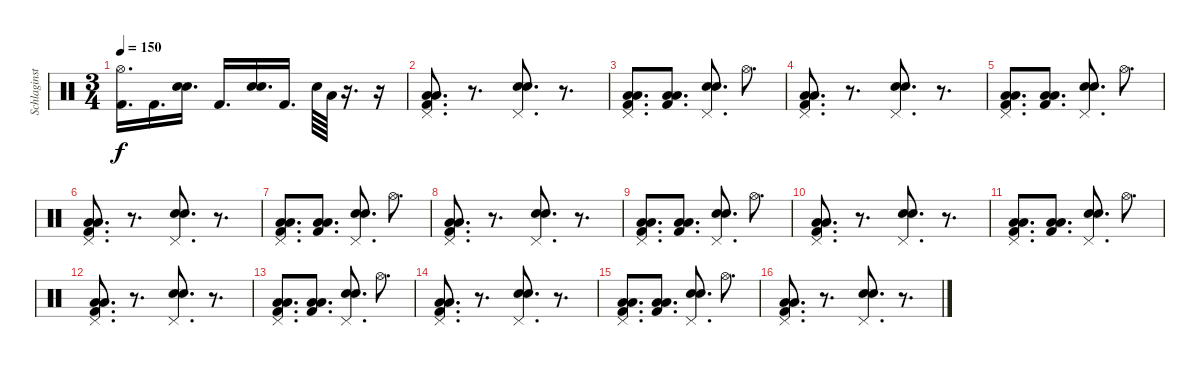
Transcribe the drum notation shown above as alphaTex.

\track ("Schlaginstrumente - Auswahl" "Schlaginst") {instrument percussion}
\staff {score}
\articulation defaults
\ts (3 4)
\tempo 150
\clef neutral
\ks c
("Hi-Hat (open)" "Kick (hit) 2").16{d dy f} "Kick (hit) 2".16{d} ("Snare (hit) 2" "Snare (hit) 2").16{d} "Kick (hit) 2".16{d} ("Snare (hit) 2" "Snare (hit) 2").16{d} "Kick (hit) 2".16{d} "Snare (hit) 2".64 "Low Tom (hit)".64 r.16{d} r.16 |
("Pedal Hi-Hat (hit)" "Low Tom (hit)" "Low Tom (hit)" "Kick (hit) 2").8{d} r.8{d} ("Pedal Hi-Hat (hit)" "Snare (hit) 2" "Snare (hit) 2").8{d} r.8{d} |
("Pedal Hi-Hat (hit)" "Low Tom (hit)" "Low Tom (hit)" "Kick (hit) 2").8{d} ("Low Tom (hit)" "Low Tom (hit)" "Kick (hit) 2").8{d} ("Pedal Hi-Hat (hit)" "Snare (hit) 2" "Snare (hit) 2").8{d} "Hi-Hat (open)".8{d} |
("Pedal Hi-Hat (hit)" "Low Tom (hit)" "Low Tom (hit)" "Kick (hit) 2").8{d} r.8{d} ("Pedal Hi-Hat (hit)" "Snare (hit) 2" "Snare (hit) 2").8{d} r.8{d} |
("Pedal Hi-Hat (hit)" "Low Tom (hit)" "Low Tom (hit)" "Kick (hit) 2").8{d} ("Low Tom (hit)" "Low Tom (hit)" "Kick (hit) 2").8{d} ("Pedal Hi-Hat (hit)" "Snare (hit) 2" "Snare (hit) 2").8{d} "Hi-Hat (open)".8{d} |
("Pedal Hi-Hat (hit)" "Low Tom (hit)" "Low Tom (hit)" "Kick (hit) 2").8{d} r.8{d} ("Pedal Hi-Hat (hit)" "Snare (hit) 2" "Snare (hit) 2").8{d} r.8{d} |
("Pedal Hi-Hat (hit)" "Low Tom (hit)" "Low Tom (hit)" "Kick (hit) 2").8{d} ("Low Tom (hit)" "Low Tom (hit)" "Kick (hit) 2").8{d} ("Pedal Hi-Hat (hit)" "Snare (hit) 2" "Snare (hit) 2").8{d} "Hi-Hat (open)".8{d} |
("Pedal Hi-Hat (hit)" "Low Tom (hit)" "Low Tom (hit)" "Kick (hit) 2").8{d} r.8{d} ("Pedal Hi-Hat (hit)" "Snare (hit) 2" "Snare (hit) 2").8{d} r.8{d} |
("Pedal Hi-Hat (hit)" "Low Tom (hit)" "Low Tom (hit)" "Kick (hit) 2").8{d} ("Low Tom (hit)" "Low Tom (hit)" "Kick (hit) 2").8{d} ("Pedal Hi-Hat (hit)" "Snare (hit) 2" "Snare (hit) 2").8{d} "Hi-Hat (open)".8{d} |
("Pedal Hi-Hat (hit)" "Low Tom (hit)" "Low Tom (hit)" "Kick (hit) 2").8{d} r.8{d} ("Pedal Hi-Hat (hit)" "Snare (hit) 2" "Snare (hit) 2").8{d} r.8{d} |
("Pedal Hi-Hat (hit)" "Low Tom (hit)" "Low Tom (hit)" "Kick (hit) 2").8{d} ("Low Tom (hit)" "Low Tom (hit)" "Kick (hit) 2").8{d} ("Pedal Hi-Hat (hit)" "Snare (hit) 2" "Snare (hit) 2").8{d} "Hi-Hat (open)".8{d} |
("Pedal Hi-Hat (hit)" "Low Tom (hit)" "Low Tom (hit)" "Kick (hit) 2").8{d} r.8{d} ("Pedal Hi-Hat (hit)" "Snare (hit) 2" "Snare (hit) 2").8{d} r.8{d} |
("Pedal Hi-Hat (hit)" "Low Tom (hit)" "Low Tom (hit)" "Kick (hit) 2").8{d} ("Low Tom (hit)" "Low Tom (hit)" "Kick (hit) 2").8{d} ("Pedal Hi-Hat (hit)" "Snare (hit) 2" "Snare (hit) 2").8{d} "Hi-Hat (open)".8{d} |
("Pedal Hi-Hat (hit)" "Low Tom (hit)" "Low Tom (hit)" "Kick (hit) 2").8{d} r.8{d} ("Pedal Hi-Hat (hit)" "Snare (hit) 2" "Snare (hit) 2").8{d} r.8{d} |
("Pedal Hi-Hat (hit)" "Low Tom (hit)" "Low Tom (hit)" "Kick (hit) 2").8{d} ("Low Tom (hit)" "Low Tom (hit)" "Kick (hit) 2").8{d} ("Pedal Hi-Hat (hit)" "Snare (hit) 2" "Snare (hit) 2").8{d} "Hi-Hat (open)".8{d} |
("Pedal Hi-Hat (hit)" "Low Tom (hit)" "Low Tom (hit)" "Kick (hit) 2").8{d} r.8{d} ("Pedal Hi-Hat (hit)" "Snare (hit) 2" "Snare (hit) 2").8{d} r.8{d}
